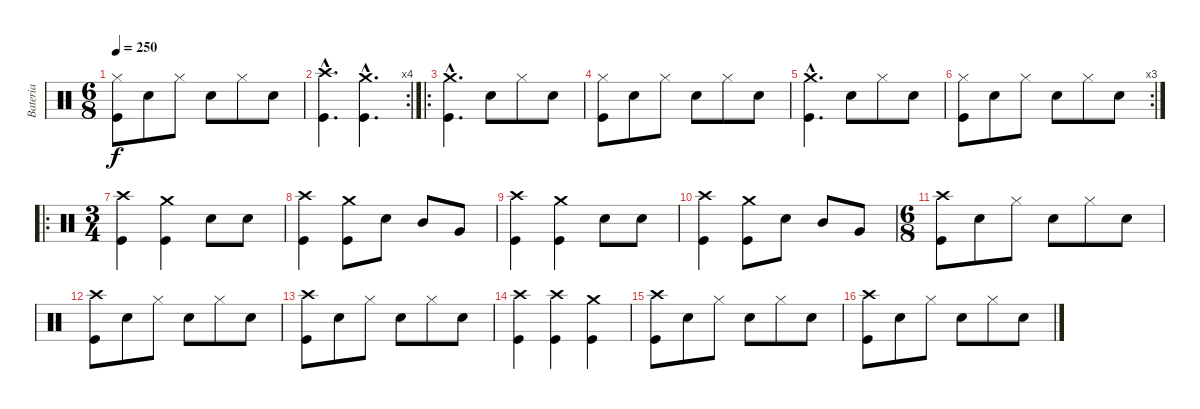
\track ("Bateria" "Bateria") {instrument percussion}
\staff {score}
\articulation defaults
\ts (6 8)
\tempo 250
\clef neutral
\ks c
("Hi-Hat (closed)" "Kick (hit)").8{dy f} "Snare (hit) 2".8 "Hi-Hat (closed)".8 "Snare (hit) 2".8 "Hi-Hat (closed)".8 "Snare (hit) 2".8 |
\rc 4
("Crash high (hit)"{hac} "Kick (hit)"{hac}).4{d} ("Crash medium (hit)"{hac} "Kick (hit)"{hac}).4{d} |
\ro
("Crash medium (hit)"{hac} "Kick (hit)"{hac}).4{d} "Snare (hit) 2".8 "Hi-Hat (closed)".8 "Snare (hit) 2".8 |
("Hi-Hat (closed)" "Kick (hit)").8 "Snare (hit) 2".8 "Hi-Hat (closed)".8 "Snare (hit) 2".8 "Hi-Hat (closed)".8 "Snare (hit) 2".8 |
("Crash medium (hit)"{hac} "Kick (hit)"{hac}).4{d} "Snare (hit) 2".8 "Hi-Hat (closed)".8 "Snare (hit) 2".8 |
\rc 3
("Hi-Hat (closed)" "Kick (hit)").8 "Snare (hit) 2".8 "Hi-Hat (closed)".8 "Snare (hit) 2".8 "Hi-Hat (closed)".8 "Snare (hit) 2".8 |
\ro
\ts (3 4)
("Crash high (hit)" "Kick (hit)").4 ("Crash medium (hit)" "Kick (hit)").4 "Snare (hit) 2".8 "Snare (hit) 2".8 |
("Crash high (hit)" "Kick (hit)").4 ("Crash medium (hit)" "Kick (hit)").8 "Snare (hit) 2".8 "Mid Tom (hit)".8 "Very Low Tom (hit)".8 |
("Crash high (hit)" "Kick (hit)").4 ("Crash medium (hit)" "Kick (hit)").4 "Snare (hit) 2".8 "Snare (hit) 2".8 |
("Crash high (hit)" "Kick (hit)").4 ("Crash medium (hit)" "Kick (hit)").8 "Snare (hit) 2".8 "Mid Tom (hit)".8 "Very Low Tom (hit)".8 |
\ts (6 8)
("Crash high (hit)" "Kick (hit)").8 "Snare (hit) 2".8 "Hi-Hat (closed)".8 "Snare (hit) 2".8 "Hi-Hat (closed)".8 "Snare (hit) 2".8 |
("Crash high (hit)" "Kick (hit)").8 "Snare (hit) 2".8 "Hi-Hat (closed)".8 "Snare (hit) 2".8 "Hi-Hat (closed)".8 "Snare (hit) 2".8 |
("Crash high (hit)" "Kick (hit)").8 "Snare (hit) 2".8 "Hi-Hat (closed)".8 "Snare (hit) 2".8 "Hi-Hat (closed)".8 "Snare (hit) 2".8 |
("Crash high (hit)" "Kick (hit)").4 ("Crash high (hit)" "Kick (hit)").4 ("Crash medium (hit)" "Kick (hit)").4 |
("Crash high (hit)" "Kick (hit)").8 "Snare (hit) 2".8 "Hi-Hat (closed)".8 "Snare (hit) 2".8 "Hi-Hat (closed)".8 "Snare (hit) 2".8 |
("Crash high (hit)" "Kick (hit)").8 "Snare (hit) 2".8 "Hi-Hat (closed)".8 "Snare (hit) 2".8 "Hi-Hat (closed)".8 "Snare (hit) 2".8
